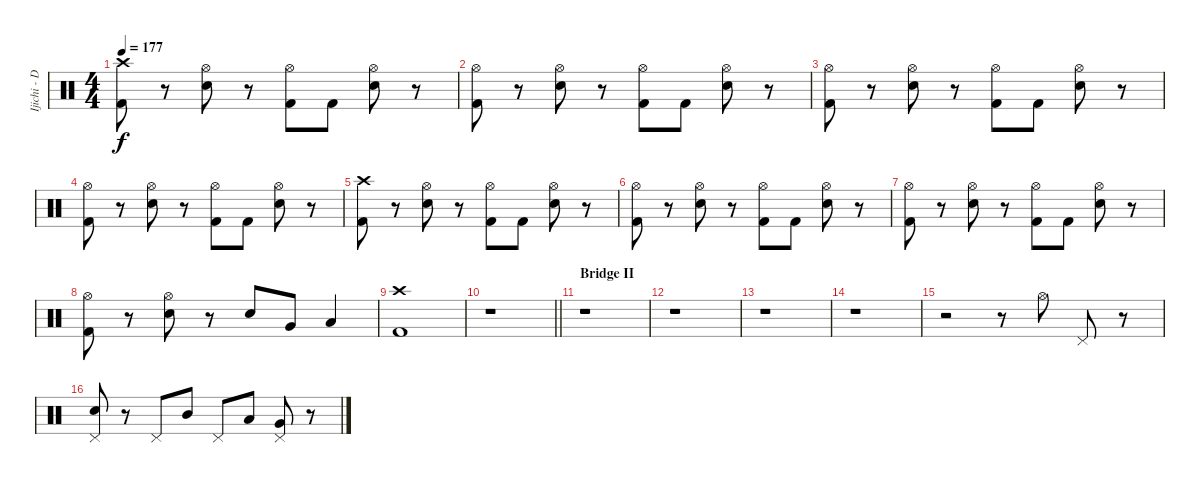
\track ("Ijichi - Drums" "Ijichi - D") {instrument percussion}
\staff {score}
\articulation defaults
\ts (4 4)
\tempo 177
\clef neutral
\ks c
("Crash high (hit)" "Kick (hit) 2").8{dy f} r.8 ("Hi-Hat (open)" "Snare (hit) 2").8 r.8 ("Hi-Hat (open)" "Kick (hit) 2").8 "Kick (hit) 2".8 ("Hi-Hat (open)" "Snare (hit) 2").8 r.8 |
("Hi-Hat (open)" "Kick (hit) 2").8 r.8 ("Hi-Hat (open)" "Snare (hit) 2").8 r.8 ("Hi-Hat (open)" "Kick (hit) 2").8 "Kick (hit) 2".8 ("Hi-Hat (open)" "Snare (hit) 2").8 r.8 |
("Hi-Hat (open)" "Kick (hit) 2").8 r.8 ("Hi-Hat (open)" "Snare (hit) 2").8 r.8 ("Hi-Hat (open)" "Kick (hit) 2").8 "Kick (hit) 2".8 ("Hi-Hat (open)" "Snare (hit) 2").8 r.8 |
("Hi-Hat (open)" "Kick (hit) 2").8 r.8 ("Hi-Hat (open)" "Snare (hit) 2").8 r.8 ("Hi-Hat (open)" "Kick (hit) 2").8 "Kick (hit) 2".8 ("Hi-Hat (open)" "Snare (hit) 2").8 r.8 |
("Crash high (hit)" "Kick (hit) 2").8 r.8 ("Hi-Hat (open)" "Snare (hit) 2").8 r.8 ("Hi-Hat (open)" "Kick (hit) 2").8 "Kick (hit) 2".8 ("Hi-Hat (open)" "Snare (hit) 2").8 r.8 |
("Hi-Hat (open)" "Kick (hit) 2").8 r.8 ("Hi-Hat (open)" "Snare (hit) 2").8 r.8 ("Hi-Hat (open)" "Kick (hit) 2").8 "Kick (hit) 2".8 ("Hi-Hat (open)" "Snare (hit) 2").8 r.8 |
("Hi-Hat (open)" "Kick (hit) 2").8 r.8 ("Hi-Hat (open)" "Snare (hit) 2").8 r.8 ("Hi-Hat (open)" "Kick (hit) 2").8 "Kick (hit) 2".8 ("Hi-Hat (open)" "Snare (hit) 2").8 r.8 |
("Hi-Hat (open)" "Kick (hit) 2").8 r.8 ("Hi-Hat (open)" "Snare (hit) 2").8 r.8 "Snare (hit) 2".8 "Very Low Tom (hit)".8 "Low Floor Tom (hit)".4 |
("Crash high (hit)" "Kick (hit) 2").1 |
\barLineRight lightlight
r.1 |
\section ("" "Bridge II")
r.1 |
r.1 |
r.1 |
r.1 |
r.2 r.8 "Hi-Hat (open)".8 "Pedal Hi-Hat (hit)".8 r.8 |
("Pedal Hi-Hat (hit)" "Snare (hit) 2").8 r.8 "Pedal Hi-Hat (hit)".8 "Mid Tom (hit)".8 "Pedal Hi-Hat (hit)".8 "Low Tom (hit)".8 ("Pedal Hi-Hat (hit)" "Very Low Tom (hit)").8 r.8
